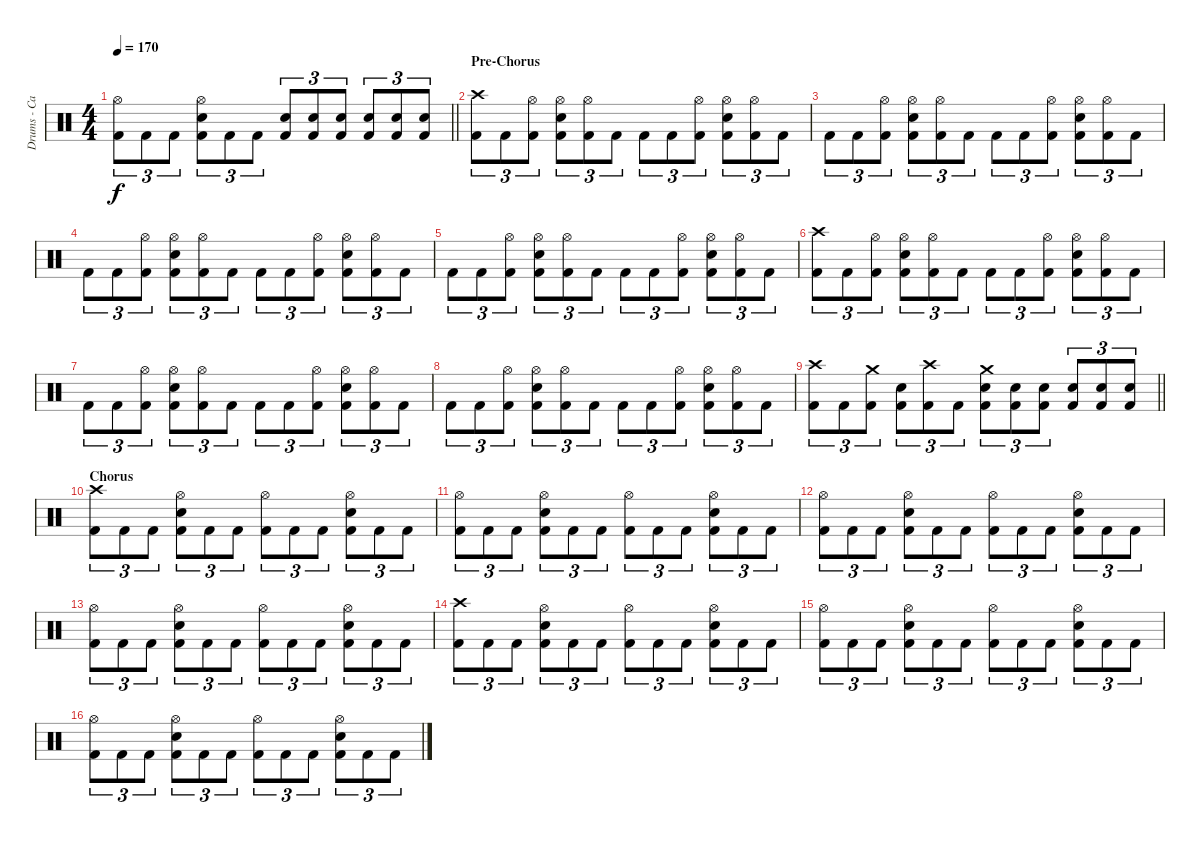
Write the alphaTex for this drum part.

\track ("Drums - Casey Grillo" "Drums - Ca") {instrument percussion}
\staff {score}
\articulation defaults
\ts (4 4)
\tempo 170
\clef neutral
\barLineRight lightlight
\ks c
("Hi-Hat (open)" "Kick (hit) 2").8{tu (3 2) dy f} "Kick (hit) 2".8{tu (3 2)} "Kick (hit) 2".8{tu (3 2)} ("Hi-Hat (open)" "Snare (hit) 2" "Kick (hit) 2").8{tu (3 2)} "Kick (hit) 2".8{tu (3 2)} "Kick (hit) 2".8{tu (3 2)} ("Snare (hit) 2" "Kick (hit) 2").8{tu (3 2)} ("Snare (hit) 2" "Kick (hit) 2").8{tu (3 2)} ("Snare (hit) 2" "Kick (hit) 2").8{tu (3 2)} ("Snare (hit) 2" "Kick (hit) 2").8{tu (3 2)} ("Snare (hit) 2" "Kick (hit) 2").8{tu (3 2)} ("Snare (hit) 2" "Kick (hit) 2").8{tu (3 2)} |
\section ("" "Pre-Chorus")
("Crash high (hit)" "Kick (hit) 2").8{tu (3 2)} "Kick (hit) 2".8{tu (3 2)} ("Hi-Hat (open)" "Kick (hit) 2").8{tu (3 2)} ("Hi-Hat (open)" "Snare (hit) 2" "Kick (hit) 2").8{tu (3 2)} ("Hi-Hat (open)" "Kick (hit) 2").8{tu (3 2)} "Kick (hit) 2".8{tu (3 2)} "Kick (hit) 2".8{tu (3 2)} "Kick (hit) 2".8{tu (3 2)} ("Hi-Hat (open)" "Kick (hit) 2").8{tu (3 2)} ("Hi-Hat (open)" "Snare (hit) 2" "Kick (hit) 2").8{tu (3 2)} ("Hi-Hat (open)" "Kick (hit) 2").8{tu (3 2)} "Kick (hit) 2".8{tu (3 2)} |
"Kick (hit) 2".8{tu (3 2)} "Kick (hit) 2".8{tu (3 2)} ("Hi-Hat (open)" "Kick (hit) 2").8{tu (3 2)} ("Hi-Hat (open)" "Snare (hit) 2" "Kick (hit) 2").8{tu (3 2)} ("Hi-Hat (open)" "Kick (hit) 2").8{tu (3 2)} "Kick (hit) 2".8{tu (3 2)} "Kick (hit) 2".8{tu (3 2)} "Kick (hit) 2".8{tu (3 2)} ("Hi-Hat (open)" "Kick (hit) 2").8{tu (3 2)} ("Hi-Hat (open)" "Snare (hit) 2" "Kick (hit) 2").8{tu (3 2)} ("Hi-Hat (open)" "Kick (hit) 2").8{tu (3 2)} "Kick (hit) 2".8{tu (3 2)} |
"Kick (hit) 2".8{tu (3 2)} "Kick (hit) 2".8{tu (3 2)} ("Hi-Hat (open)" "Kick (hit) 2").8{tu (3 2)} ("Hi-Hat (open)" "Snare (hit) 2" "Kick (hit) 2").8{tu (3 2)} ("Hi-Hat (open)" "Kick (hit) 2").8{tu (3 2)} "Kick (hit) 2".8{tu (3 2)} "Kick (hit) 2".8{tu (3 2)} "Kick (hit) 2".8{tu (3 2)} ("Hi-Hat (open)" "Kick (hit) 2").8{tu (3 2)} ("Hi-Hat (open)" "Snare (hit) 2" "Kick (hit) 2").8{tu (3 2)} ("Hi-Hat (open)" "Kick (hit) 2").8{tu (3 2)} "Kick (hit) 2".8{tu (3 2)} |
"Kick (hit) 2".8{tu (3 2)} "Kick (hit) 2".8{tu (3 2)} ("Hi-Hat (open)" "Kick (hit) 2").8{tu (3 2)} ("Hi-Hat (open)" "Snare (hit) 2" "Kick (hit) 2").8{tu (3 2)} ("Hi-Hat (open)" "Kick (hit) 2").8{tu (3 2)} "Kick (hit) 2".8{tu (3 2)} "Kick (hit) 2".8{tu (3 2)} "Kick (hit) 2".8{tu (3 2)} ("Hi-Hat (open)" "Kick (hit) 2").8{tu (3 2)} ("Hi-Hat (open)" "Snare (hit) 2" "Kick (hit) 2").8{tu (3 2)} ("Hi-Hat (open)" "Kick (hit) 2").8{tu (3 2)} "Kick (hit) 2".8{tu (3 2)} |
("Crash high (hit)" "Kick (hit) 2").8{tu (3 2)} "Kick (hit) 2".8{tu (3 2)} ("Hi-Hat (open)" "Kick (hit) 2").8{tu (3 2)} ("Hi-Hat (open)" "Snare (hit) 2" "Kick (hit) 2").8{tu (3 2)} ("Hi-Hat (open)" "Kick (hit) 2").8{tu (3 2)} "Kick (hit) 2".8{tu (3 2)} "Kick (hit) 2".8{tu (3 2)} "Kick (hit) 2".8{tu (3 2)} ("Hi-Hat (open)" "Kick (hit) 2").8{tu (3 2)} ("Hi-Hat (open)" "Snare (hit) 2" "Kick (hit) 2").8{tu (3 2)} ("Hi-Hat (open)" "Kick (hit) 2").8{tu (3 2)} "Kick (hit) 2".8{tu (3 2)} |
"Kick (hit) 2".8{tu (3 2)} "Kick (hit) 2".8{tu (3 2)} ("Hi-Hat (open)" "Kick (hit) 2").8{tu (3 2)} ("Hi-Hat (open)" "Snare (hit) 2" "Kick (hit) 2").8{tu (3 2)} ("Hi-Hat (open)" "Kick (hit) 2").8{tu (3 2)} "Kick (hit) 2".8{tu (3 2)} "Kick (hit) 2".8{tu (3 2)} "Kick (hit) 2".8{tu (3 2)} ("Hi-Hat (open)" "Kick (hit) 2").8{tu (3 2)} ("Hi-Hat (open)" "Snare (hit) 2" "Kick (hit) 2").8{tu (3 2)} ("Hi-Hat (open)" "Kick (hit) 2").8{tu (3 2)} "Kick (hit) 2".8{tu (3 2)} |
"Kick (hit) 2".8{tu (3 2)} "Kick (hit) 2".8{tu (3 2)} ("Hi-Hat (open)" "Kick (hit) 2").8{tu (3 2)} ("Hi-Hat (open)" "Snare (hit) 2" "Kick (hit) 2").8{tu (3 2)} ("Hi-Hat (open)" "Kick (hit) 2").8{tu (3 2)} "Kick (hit) 2".8{tu (3 2)} "Kick (hit) 2".8{tu (3 2)} "Kick (hit) 2".8{tu (3 2)} ("Hi-Hat (open)" "Kick (hit) 2").8{tu (3 2)} ("Hi-Hat (open)" "Snare (hit) 2" "Kick (hit) 2").8{tu (3 2)} ("Hi-Hat (open)" "Kick (hit) 2").8{tu (3 2)} "Kick (hit) 2".8{tu (3 2)} |
\barLineRight lightlight
("Crash high (hit)" "Kick (hit) 2").8{tu (3 2)} "Kick (hit) 2".8{tu (3 2)} ("Crash medium (hit)" "Kick (hit) 2").8{tu (3 2)} ("Snare (hit) 2" "Kick (hit) 2").8{tu (3 2)} ("Crash high (hit)" "Kick (hit) 2").8{tu (3 2)} "Kick (hit) 2".8{tu (3 2)} ("Crash medium (hit)" "Snare (hit) 2" "Kick (hit) 2").8{tu (3 2)} ("Snare (hit) 2" "Kick (hit) 2").8{tu (3 2)} ("Snare (hit) 2" "Kick (hit) 2").8{tu (3 2)} ("Snare (hit) 2" "Kick (hit) 2").8{tu (3 2)} ("Snare (hit) 2" "Kick (hit) 2").8{tu (3 2)} ("Snare (hit) 2" "Kick (hit) 2").8{tu (3 2)} |
\section ("" "Chorus")
("Crash high (hit)" "Kick (hit) 2").8{tu (3 2)} "Kick (hit) 2".8{tu (3 2)} "Kick (hit) 2".8{tu (3 2)} ("Hi-Hat (open)" "Snare (hit) 2" "Kick (hit) 2").8{tu (3 2)} "Kick (hit) 2".8{tu (3 2)} "Kick (hit) 2".8{tu (3 2)} ("Hi-Hat (open)" "Kick (hit) 2").8{tu (3 2)} "Kick (hit) 2".8{tu (3 2)} "Kick (hit) 2".8{tu (3 2)} ("Hi-Hat (open)" "Snare (hit) 2" "Kick (hit) 2").8{tu (3 2)} "Kick (hit) 2".8{tu (3 2)} "Kick (hit) 2".8{tu (3 2)} |
("Hi-Hat (open)" "Kick (hit) 2").8{tu (3 2)} "Kick (hit) 2".8{tu (3 2)} "Kick (hit) 2".8{tu (3 2)} ("Hi-Hat (open)" "Snare (hit) 2" "Kick (hit) 2").8{tu (3 2)} "Kick (hit) 2".8{tu (3 2)} "Kick (hit) 2".8{tu (3 2)} ("Hi-Hat (open)" "Kick (hit) 2").8{tu (3 2)} "Kick (hit) 2".8{tu (3 2)} "Kick (hit) 2".8{tu (3 2)} ("Hi-Hat (open)" "Snare (hit) 2" "Kick (hit) 2").8{tu (3 2)} "Kick (hit) 2".8{tu (3 2)} "Kick (hit) 2".8{tu (3 2)} |
("Hi-Hat (open)" "Kick (hit) 2").8{tu (3 2)} "Kick (hit) 2".8{tu (3 2)} "Kick (hit) 2".8{tu (3 2)} ("Hi-Hat (open)" "Snare (hit) 2" "Kick (hit) 2").8{tu (3 2)} "Kick (hit) 2".8{tu (3 2)} "Kick (hit) 2".8{tu (3 2)} ("Hi-Hat (open)" "Kick (hit) 2").8{tu (3 2)} "Kick (hit) 2".8{tu (3 2)} "Kick (hit) 2".8{tu (3 2)} ("Hi-Hat (open)" "Snare (hit) 2" "Kick (hit) 2").8{tu (3 2)} "Kick (hit) 2".8{tu (3 2)} "Kick (hit) 2".8{tu (3 2)} |
("Hi-Hat (open)" "Kick (hit) 2").8{tu (3 2)} "Kick (hit) 2".8{tu (3 2)} "Kick (hit) 2".8{tu (3 2)} ("Hi-Hat (open)" "Snare (hit) 2" "Kick (hit) 2").8{tu (3 2)} "Kick (hit) 2".8{tu (3 2)} "Kick (hit) 2".8{tu (3 2)} ("Hi-Hat (open)" "Kick (hit) 2").8{tu (3 2)} "Kick (hit) 2".8{tu (3 2)} "Kick (hit) 2".8{tu (3 2)} ("Hi-Hat (open)" "Snare (hit) 2" "Kick (hit) 2").8{tu (3 2)} "Kick (hit) 2".8{tu (3 2)} "Kick (hit) 2".8{tu (3 2)} |
("Crash high (hit)" "Kick (hit) 2").8{tu (3 2)} "Kick (hit) 2".8{tu (3 2)} "Kick (hit) 2".8{tu (3 2)} ("Hi-Hat (open)" "Snare (hit) 2" "Kick (hit) 2").8{tu (3 2)} "Kick (hit) 2".8{tu (3 2)} "Kick (hit) 2".8{tu (3 2)} ("Hi-Hat (open)" "Kick (hit) 2").8{tu (3 2)} "Kick (hit) 2".8{tu (3 2)} "Kick (hit) 2".8{tu (3 2)} ("Hi-Hat (open)" "Snare (hit) 2" "Kick (hit) 2").8{tu (3 2)} "Kick (hit) 2".8{tu (3 2)} "Kick (hit) 2".8{tu (3 2)} |
("Hi-Hat (open)" "Kick (hit) 2").8{tu (3 2)} "Kick (hit) 2".8{tu (3 2)} "Kick (hit) 2".8{tu (3 2)} ("Hi-Hat (open)" "Snare (hit) 2" "Kick (hit) 2").8{tu (3 2)} "Kick (hit) 2".8{tu (3 2)} "Kick (hit) 2".8{tu (3 2)} ("Hi-Hat (open)" "Kick (hit) 2").8{tu (3 2)} "Kick (hit) 2".8{tu (3 2)} "Kick (hit) 2".8{tu (3 2)} ("Hi-Hat (open)" "Snare (hit) 2" "Kick (hit) 2").8{tu (3 2)} "Kick (hit) 2".8{tu (3 2)} "Kick (hit) 2".8{tu (3 2)} |
("Hi-Hat (open)" "Kick (hit) 2").8{tu (3 2)} "Kick (hit) 2".8{tu (3 2)} "Kick (hit) 2".8{tu (3 2)} ("Hi-Hat (open)" "Snare (hit) 2" "Kick (hit) 2").8{tu (3 2)} "Kick (hit) 2".8{tu (3 2)} "Kick (hit) 2".8{tu (3 2)} ("Hi-Hat (open)" "Kick (hit) 2").8{tu (3 2)} "Kick (hit) 2".8{tu (3 2)} "Kick (hit) 2".8{tu (3 2)} ("Hi-Hat (open)" "Snare (hit) 2" "Kick (hit) 2").8{tu (3 2)} "Kick (hit) 2".8{tu (3 2)} "Kick (hit) 2".8{tu (3 2)}
